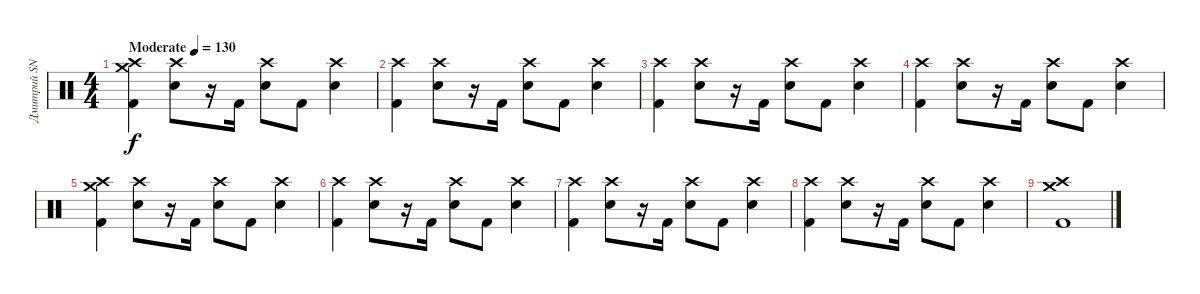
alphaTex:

\track ("Дмитрий SNAKE Хакимов" "Дмитрий SN") {instrument percussion}
\staff {score}
\articulation defaults
\ts (4 4)
\tempo (130 "Moderate")
\clef neutral
\ks c
("Crash high (hit)" "Crash medium (hit)" "Kick (hit) 2").4{dy f} ("Crash high (hit)" "Snare (hit) 2").8 r.16 "Kick (hit) 2".16 ("Crash high (hit)" "Snare (hit) 2").8 "Kick (hit) 2".8 ("Crash high (hit)" "Snare (hit) 2").4 |
("Crash high (hit)" "Kick (hit) 2").4 ("Crash high (hit)" "Snare (hit) 2").8 r.16 "Kick (hit) 2".16 ("Crash high (hit)" "Snare (hit) 2").8 "Kick (hit) 2".8 ("Crash high (hit)" "Snare (hit) 2").4 |
("Crash high (hit)" "Kick (hit) 2").4 ("Crash high (hit)" "Snare (hit) 2").8 r.16 "Kick (hit) 2".16 ("Crash high (hit)" "Snare (hit) 2").8 "Kick (hit) 2".8 ("Crash high (hit)" "Snare (hit) 2").4 |
("Crash high (hit)" "Kick (hit) 2").4 ("Crash high (hit)" "Snare (hit) 2").8 r.16 "Kick (hit) 2".16 ("Crash high (hit)" "Snare (hit) 2").8 "Kick (hit) 2".8 ("Crash high (hit)" "Snare (hit) 2").4 |
("Crash high (hit)" "Crash medium (hit)" "Kick (hit) 2").4 ("Crash high (hit)" "Snare (hit) 2").8 r.16 "Kick (hit) 2".16 ("Crash high (hit)" "Snare (hit) 2").8 "Kick (hit) 2".8 ("Crash high (hit)" "Snare (hit) 2").4 |
("Crash high (hit)" "Kick (hit) 2").4 ("Crash high (hit)" "Snare (hit) 2").8 r.16 "Kick (hit) 2".16 ("Crash high (hit)" "Snare (hit) 2").8 "Kick (hit) 2".8 ("Crash high (hit)" "Snare (hit) 2").4 |
("Crash high (hit)" "Kick (hit) 2").4 ("Crash high (hit)" "Snare (hit) 2").8 r.16 "Kick (hit) 2".16 ("Crash high (hit)" "Snare (hit) 2").8 "Kick (hit) 2".8 ("Crash high (hit)" "Snare (hit) 2").4 |
("Crash high (hit)" "Kick (hit) 2").4 ("Crash high (hit)" "Snare (hit) 2").8 r.16 "Kick (hit) 2".16 ("Crash high (hit)" "Snare (hit) 2").8 "Kick (hit) 2".8 ("Crash high (hit)" "Snare (hit) 2").4 |
("Crash high (hit)" "Crash medium (hit)" "Kick (hit) 2").1
